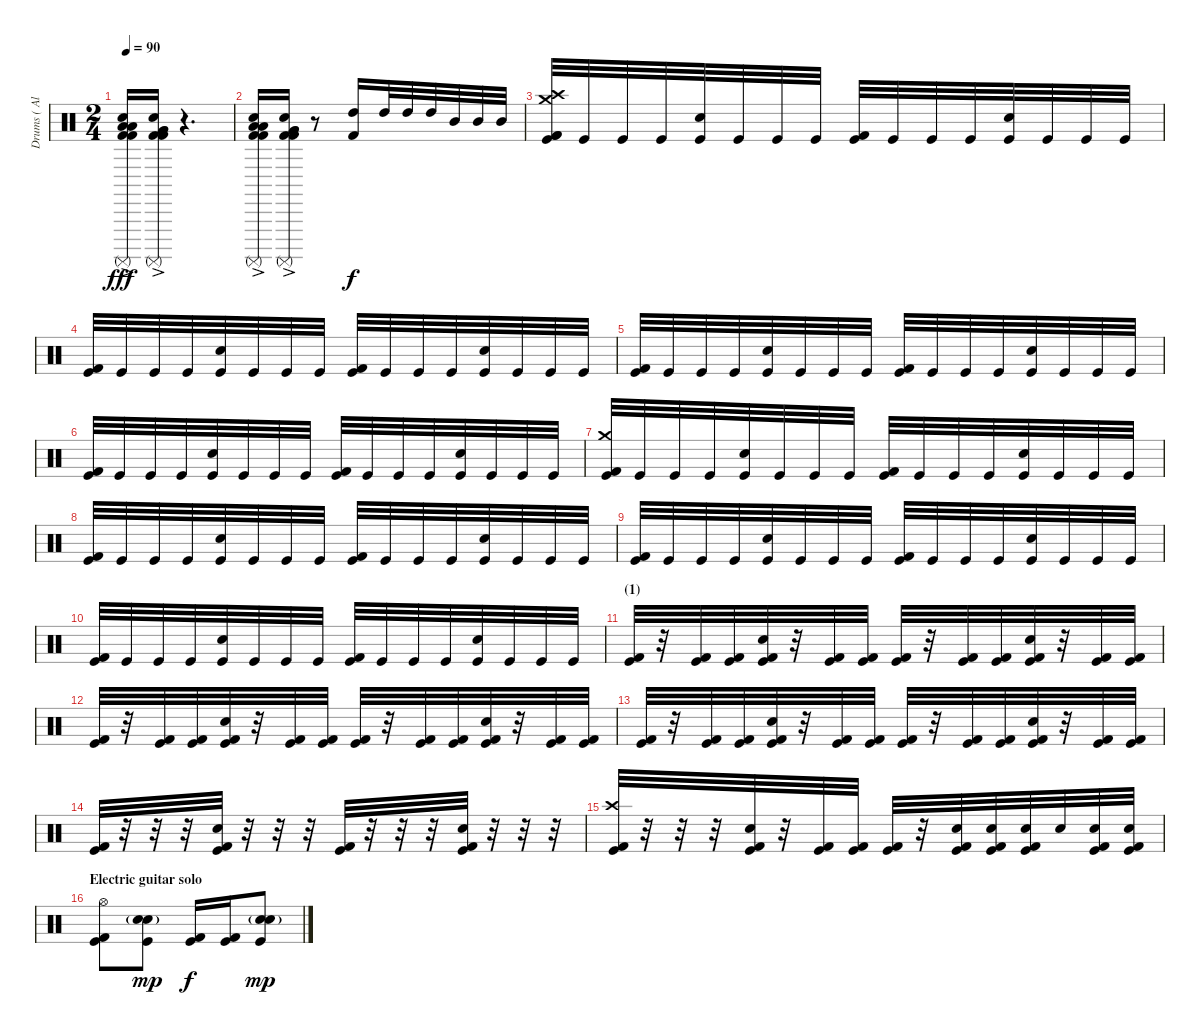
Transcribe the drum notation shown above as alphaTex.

\track ("Drums ( Alex Holzwarth)" "Drums ( Al") {instrument percussion}
\staff {score}
\articulation defaults
\ts (2 4)
\tempo 90
\clef neutral
\ks c
("Surdo (mute)"{ac} "Low Tom (hit)"{ac} "Low Tom (hit)"{ac} "Snare (hit) 2" "Kick (hit) 2"{ac} "Kick (hit) 2"{ac}).16{dy fff} ("Surdo (mute)"{ac} "Very Low Tom (hit)"{ac} "Very Low Tom (hit)"{ac} "Snare (hit) 2" "Kick (hit) 2"{ac} "Kick (hit) 2"{ac}).16 r.4{d} |
("Surdo (mute)"{ac} "Low Tom (hit)"{ac} "Low Tom (hit)"{ac} "Snare (hit) 2" "Kick (hit) 2"{ac} "Kick (hit) 2"{ac}).16 ("Surdo (mute)"{ac} "Very Low Tom (hit)"{ac} "Very Low Tom (hit)"{ac} "Snare (hit) 2" "Kick (hit) 2"{ac} "Kick (hit) 2"{ac}).16 r.8 ("High Tom (hit)" "Kick (hit) 2").16{dy f} "High Tom (hit)".32 "High Tom (hit)".32 "High Tom (hit)".32 "Mid Tom (hit)".32 "Mid Tom (hit)".32 "Mid Tom (hit)".32 |
("Crash high (hit)" "Crash medium (hit)" "Kick (hit) 2" "Kick (hit) 2" "Kick (hit)").32 "Kick (hit)".32 "Kick (hit)".32 "Kick (hit)".32 ("Snare (hit) 2" "Kick (hit)").32 "Kick (hit)".32 "Kick (hit)".32 "Kick (hit)".32 ("Kick (hit) 2" "Kick (hit)").32 "Kick (hit)".32 "Kick (hit)".32 "Kick (hit)".32 ("Snare (hit) 2" "Kick (hit)").32 "Kick (hit)".32 "Kick (hit)".32 "Kick (hit)".32 |
("Kick (hit) 2" "Kick (hit)").32 "Kick (hit)".32 "Kick (hit)".32 "Kick (hit)".32 ("Snare (hit) 2" "Kick (hit)").32 "Kick (hit)".32 "Kick (hit)".32 "Kick (hit)".32 ("Kick (hit) 2" "Kick (hit)").32 "Kick (hit)".32 "Kick (hit)".32 "Kick (hit)".32 ("Snare (hit) 2" "Kick (hit)").32 "Kick (hit)".32 "Kick (hit)".32 "Kick (hit)".32 |
("Kick (hit) 2" "Kick (hit)").32 "Kick (hit)".32 "Kick (hit)".32 "Kick (hit)".32 ("Snare (hit) 2" "Kick (hit)").32 "Kick (hit)".32 "Kick (hit)".32 "Kick (hit)".32 ("Kick (hit) 2" "Kick (hit)").32 "Kick (hit)".32 "Kick (hit)".32 "Kick (hit)".32 ("Snare (hit) 2" "Kick (hit)").32 "Kick (hit)".32 "Kick (hit)".32 "Kick (hit)".32 |
("Kick (hit) 2" "Kick (hit)").32 "Kick (hit)".32 "Kick (hit)".32 "Kick (hit)".32 ("Snare (hit) 2" "Kick (hit)").32 "Kick (hit)".32 "Kick (hit)".32 "Kick (hit)".32 ("Kick (hit) 2" "Kick (hit)").32 "Kick (hit)".32 "Kick (hit)".32 "Kick (hit)".32 ("Snare (hit) 2" "Kick (hit)").32 "Kick (hit)".32 "Kick (hit)".32 "Kick (hit)".32 |
("Crash medium (hit)" "Kick (hit) 2" "Kick (hit)").32 "Kick (hit)".32 "Kick (hit)".32 "Kick (hit)".32 ("Snare (hit) 2" "Kick (hit)").32 "Kick (hit)".32 "Kick (hit)".32 "Kick (hit)".32 ("Kick (hit) 2" "Kick (hit)").32 "Kick (hit)".32 "Kick (hit)".32 "Kick (hit)".32 ("Snare (hit) 2" "Kick (hit)").32 "Kick (hit)".32 "Kick (hit)".32 "Kick (hit)".32 |
("Kick (hit) 2" "Kick (hit)").32 "Kick (hit)".32 "Kick (hit)".32 "Kick (hit)".32 ("Snare (hit) 2" "Kick (hit)").32 "Kick (hit)".32 "Kick (hit)".32 "Kick (hit)".32 ("Kick (hit) 2" "Kick (hit)").32 "Kick (hit)".32 "Kick (hit)".32 "Kick (hit)".32 ("Snare (hit) 2" "Kick (hit)").32 "Kick (hit)".32 "Kick (hit)".32 "Kick (hit)".32 |
("Kick (hit) 2" "Kick (hit)").32 "Kick (hit)".32 "Kick (hit)".32 "Kick (hit)".32 ("Snare (hit) 2" "Kick (hit)").32 "Kick (hit)".32 "Kick (hit)".32 "Kick (hit)".32 ("Kick (hit) 2" "Kick (hit)").32 "Kick (hit)".32 "Kick (hit)".32 "Kick (hit)".32 ("Snare (hit) 2" "Kick (hit)").32 "Kick (hit)".32 "Kick (hit)".32 "Kick (hit)".32 |
("Kick (hit) 2" "Kick (hit)").32 "Kick (hit)".32 "Kick (hit)".32 "Kick (hit)".32 ("Snare (hit) 2" "Kick (hit)").32 "Kick (hit)".32 "Kick (hit)".32 "Kick (hit)".32 ("Kick (hit) 2" "Kick (hit)").32 "Kick (hit)".32 "Kick (hit)".32 "Kick (hit)".32 ("Snare (hit) 2" "Kick (hit)").32 "Kick (hit)".32 "Kick (hit)".32 "Kick (hit)".32 |
\section ("" "(1)")
("Kick (hit) 2" "Kick (hit)").32 r.32 ("Kick (hit) 2" "Kick (hit)").32 ("Kick (hit) 2" "Kick (hit)").32 ("Snare (hit) 2" "Kick (hit) 2" "Kick (hit)").32 r.32 ("Kick (hit) 2" "Kick (hit)").32 ("Kick (hit) 2" "Kick (hit)").32 ("Kick (hit) 2" "Kick (hit)").32 r.32 ("Kick (hit) 2" "Kick (hit)").32 ("Kick (hit) 2" "Kick (hit)").32 ("Snare (hit) 2" "Kick (hit) 2" "Kick (hit)").32 r.32 ("Kick (hit) 2" "Kick (hit)").32 ("Kick (hit) 2" "Kick (hit)").32 |
("Kick (hit) 2" "Kick (hit)").32 r.32 ("Kick (hit) 2" "Kick (hit)").32 ("Kick (hit) 2" "Kick (hit)").32 ("Snare (hit) 2" "Kick (hit) 2" "Kick (hit)").32 r.32 ("Kick (hit) 2" "Kick (hit)").32 ("Kick (hit) 2" "Kick (hit)").32 ("Kick (hit) 2" "Kick (hit)").32 r.32 ("Kick (hit) 2" "Kick (hit)").32 ("Kick (hit) 2" "Kick (hit)").32 ("Snare (hit) 2" "Kick (hit) 2" "Kick (hit)").32 r.32 ("Kick (hit) 2" "Kick (hit)").32 ("Kick (hit) 2" "Kick (hit)").32 |
("Kick (hit) 2" "Kick (hit)").32 r.32 ("Kick (hit) 2" "Kick (hit)").32 ("Kick (hit) 2" "Kick (hit)").32 ("Snare (hit) 2" "Kick (hit) 2" "Kick (hit)").32 r.32 ("Kick (hit) 2" "Kick (hit)").32 ("Kick (hit) 2" "Kick (hit)").32 ("Kick (hit) 2" "Kick (hit)").32 r.32 ("Kick (hit) 2" "Kick (hit)").32 ("Kick (hit) 2" "Kick (hit)").32 ("Snare (hit) 2" "Kick (hit) 2" "Kick (hit)").32 r.32 ("Kick (hit) 2" "Kick (hit)").32 ("Kick (hit) 2" "Kick (hit)").32 |
("Kick (hit) 2" "Kick (hit)").32 r.32 r.32 r.32 ("Snare (hit) 2" "Kick (hit) 2" "Kick (hit)").32 r.32 r.32 r.32 ("Kick (hit) 2" "Kick (hit)").32 r.32 r.32 r.32 ("Snare (hit) 2" "Kick (hit) 2" "Kick (hit)").32 r.32 r.32 r.32 |
("Crash high (hit)" "Kick (hit) 2" "Kick (hit)").32 r.32 r.32 r.32 ("Snare (hit) 2" "Kick (hit) 2" "Kick (hit)").32 r.32 ("Kick (hit) 2" "Kick (hit)").32 ("Kick (hit) 2" "Kick (hit)").32 ("Kick (hit) 2" "Kick (hit)").32 r.32 ("Electric Snare (hit)" "Kick (hit) 2" "Kick (hit)").32 ("Electric Snare (hit)" "Kick (hit) 2" "Kick (hit)").32 ("Electric Snare (hit)" "Kick (hit) 2" "Kick (hit)").32 "Electric Snare (hit)".32 ("Electric Snare (hit)" "Kick (hit) 2" "Kick (hit)").32 ("Electric Snare (hit)" "Kick (hit) 2" "Kick (hit)").32 |
\section ("" "Electric guitar solo")
("Hi-Hat (open)" "Kick (hit) 2" "Kick (hit)").8 ("Electric Snare (hit)"{g} "Snare (hit) 2" "Kick (hit)").8{dy mp} ("Kick (hit) 2" "Kick (hit)").16{dy f} ("Kick (hit) 2" "Kick (hit)").16 ("Electric Snare (hit)"{g} "Snare (hit) 2" "Kick (hit)").8{dy mp}
